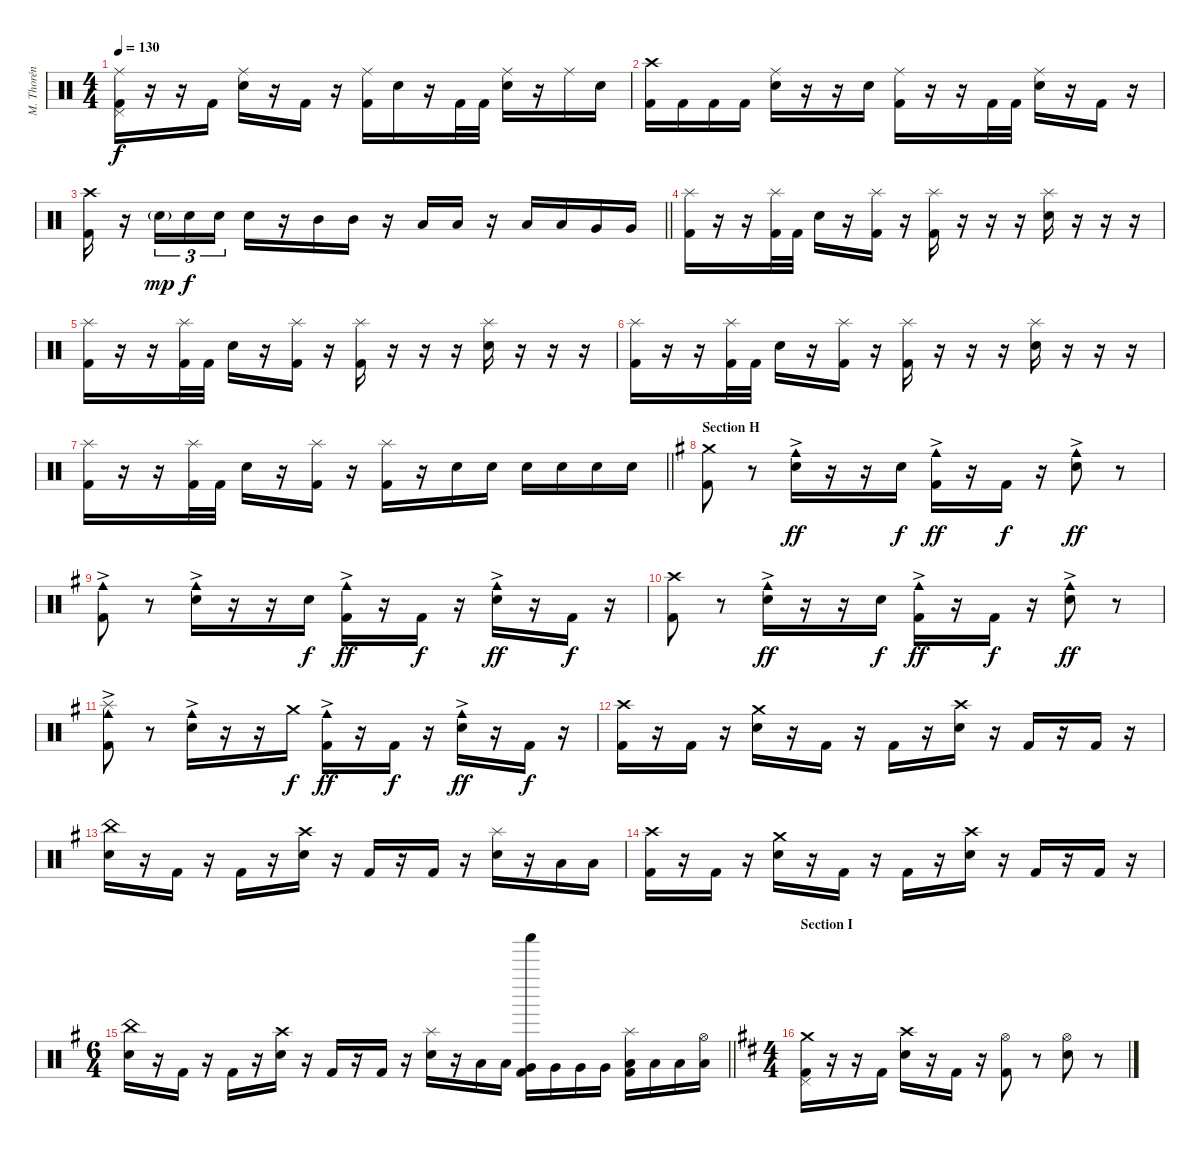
\track ("M. Thorén (Drums)" "M. Thorén ") {instrument percussion}
\staff {score}
\articulation defaults
\ts (4 4)
\tempo 130
\clef neutral
\ks aminor
("Ride (middle)" "Pedal Hi-Hat (hit)" "Kick (hit) 2").16{dy f} r.16 r.16 "Kick (hit) 2".16 ("Ride (middle)" "Electric Snare (hit)").16 r.16 "Kick (hit) 2".16 r.16 ("Ride (middle)" "Kick (hit) 2").16 "Electric Snare (hit)".16 r.16 "Kick (hit) 2".32 "Kick (hit) 2".32 ("Ride (middle)" "Electric Snare (hit)").16 r.16 "Ride (middle)".16 "Electric Snare (hit)".16 |
("Crash high (hit)" "Kick (hit) 2").16 "Kick (hit) 2".16 "Kick (hit) 2".16 "Kick (hit) 2".16 ("Ride (middle)" "Electric Snare (hit)").16 r.16 r.16 "Electric Snare (hit)".16 ("Ride (middle)" "Kick (hit) 2").16 r.16 r.16 "Kick (hit) 2".32 "Kick (hit) 2".32 ("Ride (middle)" "Electric Snare (hit)").16 r.16 "Kick (hit) 2".16 r.16 |
\barLineRight lightlight
("Crash high (hit)" "Kick (hit) 2").16 r.16 "Electric Snare (hit)"{g}.16{tu (3 2) dy mp} "Electric Snare (hit)".16{tu (3 2) dy f} "Electric Snare (hit)".16{tu (3 2)} "Electric Snare (hit)".16 r.16 "Mid Tom (hit)".16 "Mid Tom (hit)".16 r.16 "Low Tom (hit)".16 "Low Tom (hit)".16 r.16 "Low Tom (hit)".16 "Low Tom (hit)".16 "Very Low Tom (hit)".16 "Very Low Tom (hit)".16 |
("Splash (hit)" "Kick (hit) 2").16 r.16 r.16 ("Splash (hit)" "Kick (hit) 2").32 "Kick (hit) 2".32 "Electric Snare (hit)".16 r.16 ("Splash (hit)" "Kick (hit) 2").16 r.16 ("Splash (hit)" "Kick (hit) 2").16 r.16 r.16 r.16 ("Splash (hit)" "Electric Snare (hit)").16 r.16 r.16 r.16 |
("Splash (hit)" "Kick (hit) 2").16 r.16 r.16 ("Splash (hit)" "Kick (hit) 2").32 "Kick (hit) 2".32 "Electric Snare (hit)".16 r.16 ("Splash (hit)" "Kick (hit) 2").16 r.16 ("Splash (hit)" "Kick (hit) 2").16 r.16 r.16 r.16 ("Splash (hit)" "Electric Snare (hit)").16 r.16 r.16 r.16 |
("Splash (hit)" "Kick (hit) 2").16 r.16 r.16 ("Splash (hit)" "Kick (hit) 2").32 "Kick (hit) 2".32 "Electric Snare (hit)".16 r.16 ("Splash (hit)" "Kick (hit) 2").16 r.16 ("Splash (hit)" "Kick (hit) 2").16 r.16 r.16 r.16 ("Splash (hit)" "Electric Snare (hit)").16 r.16 r.16 r.16 |
\barLineRight lightlight
("Splash (hit)" "Kick (hit) 2").16 r.16 r.16 ("Splash (hit)" "Kick (hit) 2").32 "Kick (hit) 2".32 "Electric Snare (hit)".16 r.16 ("Splash (hit)" "Kick (hit) 2").16 r.16 ("Splash (hit)" "Kick (hit) 2").16 r.16 "Electric Snare (hit)".16 "Electric Snare (hit)".16 "Electric Snare (hit)".16 "Electric Snare (hit)".16 "Electric Snare (hit)".16 "Electric Snare (hit)".16 |
\section ("" "Section H")
\ks eminor
("Crash medium (hit)" "Kick (hit) 2").8 r.8 ("Cowbell medium (hit)"{ac} "Electric Snare (hit)").16{dy ff} r.16 r.16 "Electric Snare (hit)".16{dy f} ("Cowbell medium (hit)"{ac} "Kick (hit) 2").16{dy ff} r.16 "Kick (hit) 2".16{dy f} r.16 ("Cowbell medium (hit)"{ac} "Electric Snare (hit)").8{dy ff} r.8 |
("Cowbell medium (hit)"{ac} "Kick (hit) 2").8 r.8 ("Cowbell medium (hit)"{ac} "Electric Snare (hit)").16 r.16 r.16 "Electric Snare (hit)".16{dy f} ("Cowbell medium (hit)"{ac} "Kick (hit) 2").16{dy ff} r.16 "Kick (hit) 2".16{dy f} r.16 ("Cowbell medium (hit)"{ac} "Electric Snare (hit)").16{dy ff} r.16 "Kick (hit) 2".16{dy f} r.16 |
("Crash high (hit)" "Kick (hit) 2").8 r.8 ("Cowbell medium (hit)"{ac} "Electric Snare (hit)").16{dy ff} r.16 r.16 "Electric Snare (hit)".16{dy f} ("Cowbell medium (hit)"{ac} "Kick (hit) 2").16{dy ff} r.16 "Kick (hit) 2".16{dy f} r.16 ("Cowbell medium (hit)"{ac} "Electric Snare (hit)").8{dy ff} r.8 |
("Cowbell medium (hit)"{ac} "Splash (hit)" "Kick (hit) 2").8 r.8 ("Cowbell medium (hit)"{ac} "Electric Snare (hit)").16 r.16 r.16 "Crash medium (hit)".16{dy f} ("Cowbell medium (hit)"{ac} "Kick (hit) 2").16{dy ff} r.16 "Kick (hit) 2".16{dy f} r.16 ("Cowbell medium (hit)"{ac} "Electric Snare (hit)").16{dy ff} r.16 "Kick (hit) 2".16{dy f} r.16 |
("Crash high (hit)" "Kick (hit) 2").16 r.16 "Kick (hit) 2".16 r.16 ("Crash medium (hit)" "Electric Snare (hit)").16 r.16 "Kick (hit) 2".16 r.16 "Kick (hit) 2".16 r.16 ("Crash high (hit)" "Electric Snare (hit)").16 r.16 "Kick (hit) 2".16 r.16 "Kick (hit) 2".16 r.16 |
("China (hit)" "Electric Snare (hit)").16 r.16 "Kick (hit) 2".16 r.16 "Kick (hit) 2".16 r.16 ("Crash high (hit)" "Electric Snare (hit)").16 r.16 "Kick (hit) 2".16 r.16 "Kick (hit) 2".16 r.16 ("Splash (hit)" "Electric Snare (hit)").16 r.16 "Low Tom (hit)".16 "Low Tom (hit)".16 |
("Crash high (hit)" "Kick (hit) 2").16 r.16 "Kick (hit) 2".16 r.16 ("Crash medium (hit)" "Electric Snare (hit)").16 r.16 "Kick (hit) 2".16 r.16 "Kick (hit) 2".16 r.16 ("Crash high (hit)" "Electric Snare (hit)").16 r.16 "Kick (hit) 2".16 r.16 "Kick (hit) 2".16 r.16 |
\ts (6 4)
\barLineRight lightlight
("China (hit)" "Electric Snare (hit)").16 r.16 "Kick (hit) 2".16 r.16 "Kick (hit) 2".16 r.16 ("Crash high (hit)" "Electric Snare (hit)").16 r.16 "Kick (hit) 2".16 r.16 "Kick (hit) 2".16 r.16 ("Splash (hit)" "Electric Snare (hit)").16 r.16 "Low Tom (hit)".16 "Low Tom (hit)".16 ("Shaker (hit)" "Very Low Tom (hit)" "Kick (hit) 2").16 "Very Low Tom (hit)".16 "Very Low Tom (hit)".16 "Very Low Tom (hit)".16 ("Splash (hit)" "Low Floor Tom (hit)" "Kick (hit) 2").16 "Low Floor Tom (hit)".16 "Low Floor Tom (hit)".16 ("Hi-Hat (open)" "Low Floor Tom (hit)").16 |
\ts (4 4)
\section ("" "Section I")
\ks bminor
("Crash medium (hit)" "Pedal Hi-Hat (hit)" "Kick (hit) 2").16 r.16 r.16 "Kick (hit) 2".16 ("Crash high (hit)" "Electric Snare (hit)").16 r.16 "Kick (hit) 2".16 r.16 ("Hi-Hat (open)" "Kick (hit) 2").8 r.8 ("Hi-Hat (open)" "Electric Snare (hit)").8 r.8
